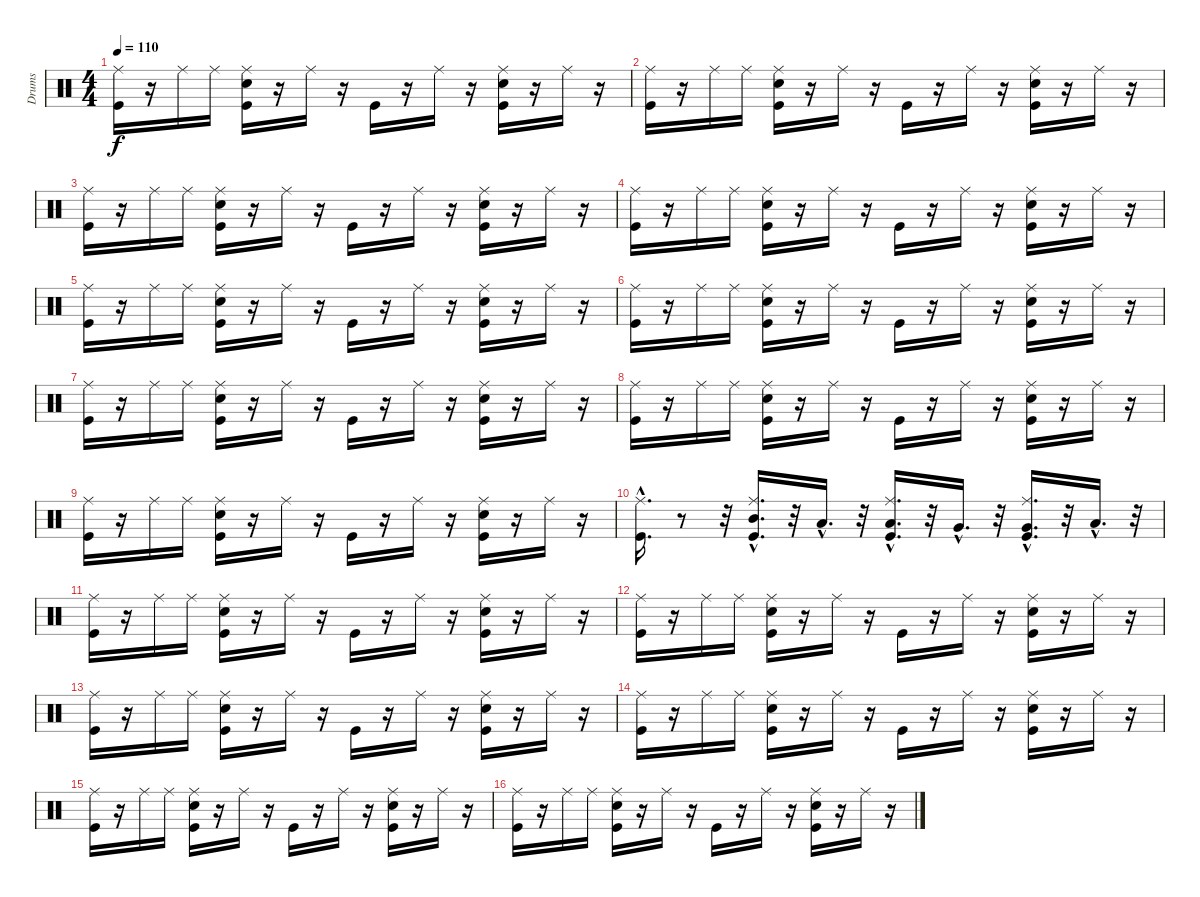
\track ("Drums" "Drums") {instrument percussion}
\staff {score}
\articulation defaults
\ts (4 4)
\tempo 110
\clef neutral
\ks c
("Kick (hit)" "Ride (middle)").16{dy f} r.16 "Ride (middle)".16 "Ride (middle)".16 ("Snare (hit) 2" "Ride (middle)" "Kick (hit)").16 r.16 "Ride (middle)".16 r.16 "Kick (hit)".16 r.16 "Ride (middle)".16 r.16 ("Snare (hit) 2" "Ride (middle)" "Kick (hit)").16 r.16 "Ride (middle)".16 r.16 |
("Kick (hit)" "Ride (middle)").16 r.16 "Ride (middle)".16 "Ride (middle)".16 ("Snare (hit) 2" "Ride (middle)" "Kick (hit)").16 r.16 "Ride (middle)".16 r.16 "Kick (hit)".16 r.16 "Ride (middle)".16 r.16 ("Snare (hit) 2" "Ride (middle)" "Kick (hit)").16 r.16 "Ride (middle)".16 r.16 |
("Kick (hit)" "Ride (middle)").16 r.16 "Ride (middle)".16 "Ride (middle)".16 ("Snare (hit) 2" "Ride (middle)" "Kick (hit)").16 r.16 "Ride (middle)".16 r.16 "Kick (hit)".16 r.16 "Ride (middle)".16 r.16 ("Snare (hit) 2" "Ride (middle)" "Kick (hit)").16 r.16 "Ride (middle)".16 r.16 |
("Kick (hit)" "Ride (middle)").16 r.16 "Ride (middle)".16 "Ride (middle)".16 ("Snare (hit) 2" "Ride (middle)" "Kick (hit)").16 r.16 "Ride (middle)".16 r.16 "Kick (hit)".16 r.16 "Ride (middle)".16 r.16 ("Snare (hit) 2" "Ride (middle)" "Kick (hit)").16 r.16 "Ride (middle)".16 r.16 |
("Kick (hit)" "Ride (middle)").16 r.16 "Ride (middle)".16 "Ride (middle)".16 ("Snare (hit) 2" "Ride (middle)" "Kick (hit)").16 r.16 "Ride (middle)".16 r.16 "Kick (hit)".16 r.16 "Ride (middle)".16 r.16 ("Snare (hit) 2" "Ride (middle)" "Kick (hit)").16 r.16 "Ride (middle)".16 r.16 |
("Kick (hit)" "Ride (middle)").16 r.16 "Ride (middle)".16 "Ride (middle)".16 ("Snare (hit) 2" "Ride (middle)" "Kick (hit)").16 r.16 "Ride (middle)".16 r.16 "Kick (hit)".16 r.16 "Ride (middle)".16 r.16 ("Snare (hit) 2" "Ride (middle)" "Kick (hit)").16 r.16 "Ride (middle)".16 r.16 |
("Kick (hit)" "Ride (middle)").16 r.16 "Ride (middle)".16 "Ride (middle)".16 ("Snare (hit) 2" "Ride (middle)" "Kick (hit)").16 r.16 "Ride (middle)".16 r.16 "Kick (hit)".16 r.16 "Ride (middle)".16 r.16 ("Snare (hit) 2" "Ride (middle)" "Kick (hit)").16 r.16 "Ride (middle)".16 r.16 |
("Kick (hit)" "Ride (middle)").16 r.16 "Ride (middle)".16 "Ride (middle)".16 ("Snare (hit) 2" "Ride (middle)" "Kick (hit)").16 r.16 "Ride (middle)".16 r.16 "Kick (hit)".16 r.16 "Ride (middle)".16 r.16 ("Snare (hit) 2" "Ride (middle)" "Kick (hit)").16 r.16 "Ride (middle)".16 r.16 |
("Kick (hit)" "Ride (middle)").16 r.16 "Ride (middle)".16 "Ride (middle)".16 ("Snare (hit) 2" "Ride (middle)" "Kick (hit)").16 r.16 "Ride (middle)".16 r.16 "Kick (hit)".16 r.16 "Ride (middle)".16 r.16 ("Snare (hit) 2" "Ride (middle)" "Kick (hit)").16 r.16 "Ride (middle)".16 r.16 |
("Ride (middle)"{hac} "Kick (hit)"{hac}).16{d} r.8 r.32 ("Ride (middle)"{hac} "Mid Tom (hit)"{hac} "Kick (hit)"{hac}).16{d} r.32 "Low Tom (hit)"{hac}.16{d} r.32 ("Ride (middle)"{hac} "Low Tom (hit)"{hac} "Kick (hit)"{hac}).16{d} r.32 "Very Low Tom (hit)"{hac}.16{d} r.32 ("Ride (middle)"{hac} "Very Low Tom (hit)"{hac} "Kick (hit)"{hac}).16{d} r.32 "Low Floor Tom (hit)"{hac}.16{d} r.32 |
("Kick (hit)" "Ride (middle)").16 r.16 "Ride (middle)".16 "Ride (middle)".16 ("Snare (hit) 2" "Ride (middle)" "Kick (hit)").16 r.16 "Ride (middle)".16 r.16 "Kick (hit)".16 r.16 "Ride (middle)".16 r.16 ("Snare (hit) 2" "Ride (middle)" "Kick (hit)").16 r.16 "Ride (middle)".16 r.16 |
("Kick (hit)" "Ride (middle)").16 r.16 "Ride (middle)".16 "Ride (middle)".16 ("Snare (hit) 2" "Ride (middle)" "Kick (hit)").16 r.16 "Ride (middle)".16 r.16 "Kick (hit)".16 r.16 "Ride (middle)".16 r.16 ("Snare (hit) 2" "Ride (middle)" "Kick (hit)").16 r.16 "Ride (middle)".16 r.16 |
("Kick (hit)" "Ride (middle)").16 r.16 "Ride (middle)".16 "Ride (middle)".16 ("Snare (hit) 2" "Ride (middle)" "Kick (hit)").16 r.16 "Ride (middle)".16 r.16 "Kick (hit)".16 r.16 "Ride (middle)".16 r.16 ("Snare (hit) 2" "Ride (middle)" "Kick (hit)").16 r.16 "Ride (middle)".16 r.16 |
("Kick (hit)" "Ride (middle)").16 r.16 "Ride (middle)".16 "Ride (middle)".16 ("Snare (hit) 2" "Ride (middle)" "Kick (hit)").16 r.16 "Ride (middle)".16 r.16 "Kick (hit)".16 r.16 "Ride (middle)".16 r.16 ("Snare (hit) 2" "Ride (middle)" "Kick (hit)").16 r.16 "Ride (middle)".16 r.16 |
("Kick (hit)" "Ride (middle)").16 r.16 "Ride (middle)".16 "Ride (middle)".16 ("Snare (hit) 2" "Ride (middle)" "Kick (hit)").16 r.16 "Ride (middle)".16 r.16 "Kick (hit)".16 r.16 "Ride (middle)".16 r.16 ("Snare (hit) 2" "Ride (middle)" "Kick (hit)").16 r.16 "Ride (middle)".16 r.16 |
("Kick (hit)" "Ride (middle)").16 r.16 "Ride (middle)".16 "Ride (middle)".16 ("Snare (hit) 2" "Ride (middle)" "Kick (hit)").16 r.16 "Ride (middle)".16 r.16 "Kick (hit)".16 r.16 "Ride (middle)".16 r.16 ("Snare (hit) 2" "Ride (middle)" "Kick (hit)").16 r.16 "Ride (middle)".16 r.16
